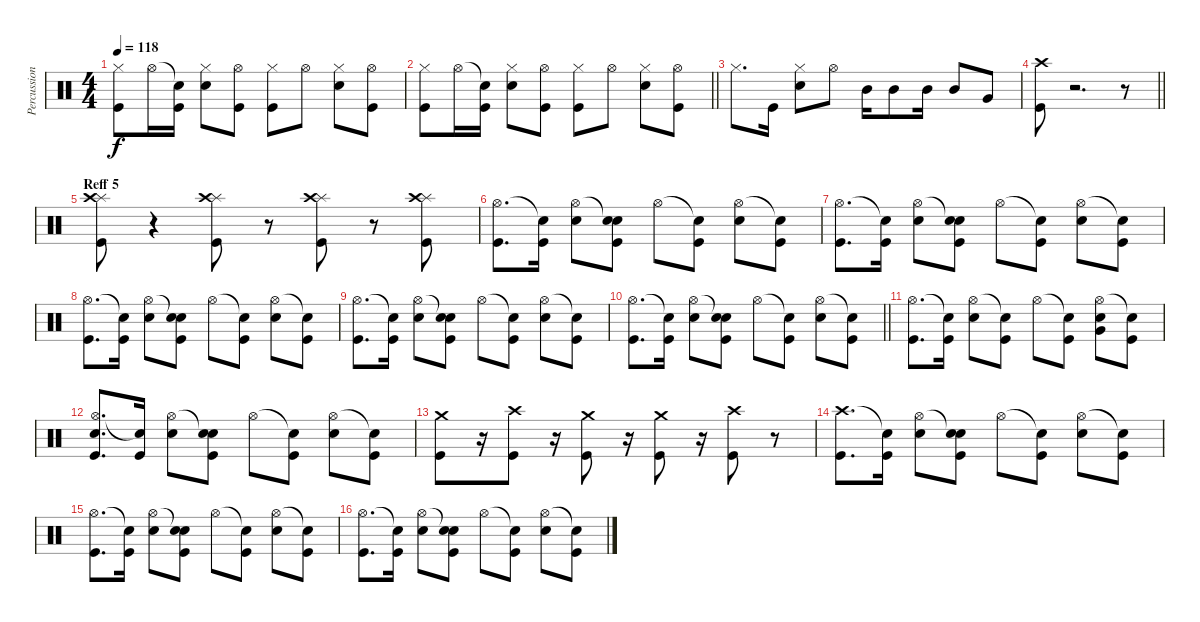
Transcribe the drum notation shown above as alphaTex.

\track ("Percussion 1" "Percussion") {instrument percussion}
\staff {score}
\articulation defaults
\ts (4 4)
\tempo 118
\clef neutral
\ks c
("Hi-Hat (closed)" "Kick (hit)").8{dy f} "Hi-Hat (open)".16 ("Snare (hit)"{t} "Kick (hit)").16 ("Hi-Hat (closed)" "Electric Snare (hit)").8 ("Hi-Hat (open)" "Kick (hit)").8 ("Hi-Hat (closed)" "Kick (hit)").8 "Hi-Hat (open)".8 ("Hi-Hat (closed)" "Electric Snare (hit)").8 ("Hi-Hat (open)" "Kick (hit)").8 |
\barLineRight lightlight
("Hi-Hat (closed)" "Kick (hit)").8 "Hi-Hat (open)".16 ("Snare (hit)"{t} "Kick (hit)").16 ("Hi-Hat (closed)" "Electric Snare (hit)").8 ("Hi-Hat (open)" "Kick (hit)").8 ("Hi-Hat (closed)" "Kick (hit)").8 "Hi-Hat (open)".8 ("Hi-Hat (closed)" "Electric Snare (hit)").8 ("Hi-Hat (open)" "Kick (hit)").8 |
"Hi-Hat (closed)".8{d} "Kick (hit)".16 ("Hi-Hat (closed)" "Electric Snare (hit)").8 "Hi-Hat (open)".8 "Mid Tom (hit)".16 "Mid Tom (hit)".8 "Mid Tom (hit)".16 "Mid Tom (hit)".8 "Very Low Tom (hit)".8 |
\barLineRight lightlight
("Crash high (hit)" "Kick (hit)").8 r.2{d} r.8 |
\section ("" "Reff 5")
("Splash (hit)" "Crash high (hit)" "Kick (hit)").8 r.4 ("Splash (hit)" "Crash high (hit)" "Kick (hit)").8 r.8 ("Splash (hit)" "Crash high (hit)" "Kick (hit)").8 r.8 ("Splash (hit)" "Crash high (hit)" "Kick (hit)").8 |
("Hi-Hat (open)" "Kick (hit)").8{d} ("Snare (hit)"{t} "Kick (hit)").16 ("Hi-Hat (open)" "Electric Snare (hit)").8 ("Snare (hit)"{t} "Electric Snare (hit)" "Kick (hit)").8 "Hi-Hat (open)".8 ("Snare (hit)"{t} "Kick (hit)").8 ("Hi-Hat (open)" "Electric Snare (hit)").8 ("Snare (hit)"{t} "Kick (hit)").8 |
("Hi-Hat (open)" "Kick (hit)").8{d} ("Snare (hit)"{t} "Kick (hit)").16 ("Hi-Hat (open)" "Electric Snare (hit)").8 ("Snare (hit)"{t} "Electric Snare (hit)" "Kick (hit)").8 "Hi-Hat (open)".8 ("Snare (hit)"{t} "Kick (hit)").8 ("Hi-Hat (open)" "Electric Snare (hit)").8 ("Snare (hit)"{t} "Kick (hit)").8 |
("Hi-Hat (open)" "Kick (hit)").8{d} ("Snare (hit)"{t} "Kick (hit)").16 ("Hi-Hat (open)" "Electric Snare (hit)").8 ("Snare (hit)"{t} "Electric Snare (hit)" "Kick (hit)").8 "Hi-Hat (open)".8 ("Snare (hit)"{t} "Kick (hit)").8 ("Hi-Hat (open)" "Electric Snare (hit)").8 ("Snare (hit)"{t} "Kick (hit)").8 |
("Hi-Hat (open)" "Kick (hit)").8{d} ("Snare (hit)"{t} "Kick (hit)").16 ("Hi-Hat (open)" "Electric Snare (hit)").8 ("Snare (hit)"{t} "Electric Snare (hit)" "Kick (hit)").8 "Hi-Hat (open)".8 ("Snare (hit)"{t} "Kick (hit)").8 ("Hi-Hat (open)" "Electric Snare (hit)").8 ("Snare (hit)"{t} "Kick (hit)").8 |
\barLineRight lightlight
("Hi-Hat (open)" "Kick (hit)").8{d} ("Snare (hit)"{t} "Kick (hit)").16 ("Hi-Hat (open)" "Electric Snare (hit)").8 ("Snare (hit)"{t} "Electric Snare (hit)" "Kick (hit)").8 "Hi-Hat (open)".8 ("Snare (hit)"{t} "Kick (hit)").8 ("Hi-Hat (open)" "Electric Snare (hit)").8 ("Snare (hit)"{t} "Kick (hit)").8 |
("Hi-Hat (open)" "Kick (hit)").8{d} ("Snare (hit)"{t} "Kick (hit)").16 ("Hi-Hat (open)" "Electric Snare (hit)").8 ("Snare (hit)"{t} "Kick (hit)").8 "Hi-Hat (open)".8 ("Snare (hit)"{t} "Kick (hit)").8 ("Hi-Hat (open)" "Electric Snare (hit)" "Very Low Tom (hit)").8 ("Snare (hit)"{t} "Kick (hit)").8 |
("Hi-Hat (open)" "Electric Snare (hit)" "Kick (hit)").8{d} ("Snare (hit)"{t} "Kick (hit)").16 ("Hi-Hat (open)" "Electric Snare (hit)").8 ("Snare (hit)"{t} "Electric Snare (hit)" "Kick (hit)").8 "Hi-Hat (open)".8 ("Snare (hit)"{t} "Kick (hit)").8 ("Hi-Hat (open)" "Electric Snare (hit)").8 ("Snare (hit)"{t} "Kick (hit)").8 |
("Crash medium (hit)" "Kick (hit)").8 r.16 ("Crash high (hit)" "Kick (hit)").8 r.16 ("Crash medium (hit)" "Kick (hit)").8 r.16 ("Crash medium (hit)" "Kick (hit)").8 r.16 ("Crash high (hit)" "Kick (hit)").8 r.8 |
("Crash high (hit)" "Kick (hit)").8{d} ("Snare (hit)"{t} "Kick (hit)").16 ("Hi-Hat (open)" "Electric Snare (hit)").8 ("Snare (hit)"{t} "Electric Snare (hit)" "Kick (hit)").8 "Hi-Hat (open)".8 ("Snare (hit)"{t} "Kick (hit)").8 ("Hi-Hat (open)" "Electric Snare (hit)").8 ("Snare (hit)"{t} "Kick (hit)").8 |
("Hi-Hat (open)" "Kick (hit)").8{d} ("Snare (hit)"{t} "Kick (hit)").16 ("Hi-Hat (open)" "Electric Snare (hit)").8 ("Snare (hit)"{t} "Electric Snare (hit)" "Kick (hit)").8 "Hi-Hat (open)".8 ("Snare (hit)"{t} "Kick (hit)").8 ("Hi-Hat (open)" "Electric Snare (hit)").8 ("Snare (hit)"{t} "Kick (hit)").8 |
("Hi-Hat (open)" "Kick (hit)").8{d} ("Snare (hit)"{t} "Kick (hit)").16 ("Hi-Hat (open)" "Electric Snare (hit)").8 ("Snare (hit)"{t} "Electric Snare (hit)" "Kick (hit)").8 "Hi-Hat (open)".8 ("Snare (hit)"{t} "Kick (hit)").8 ("Hi-Hat (open)" "Electric Snare (hit)").8 ("Snare (hit)"{t} "Kick (hit)").8
